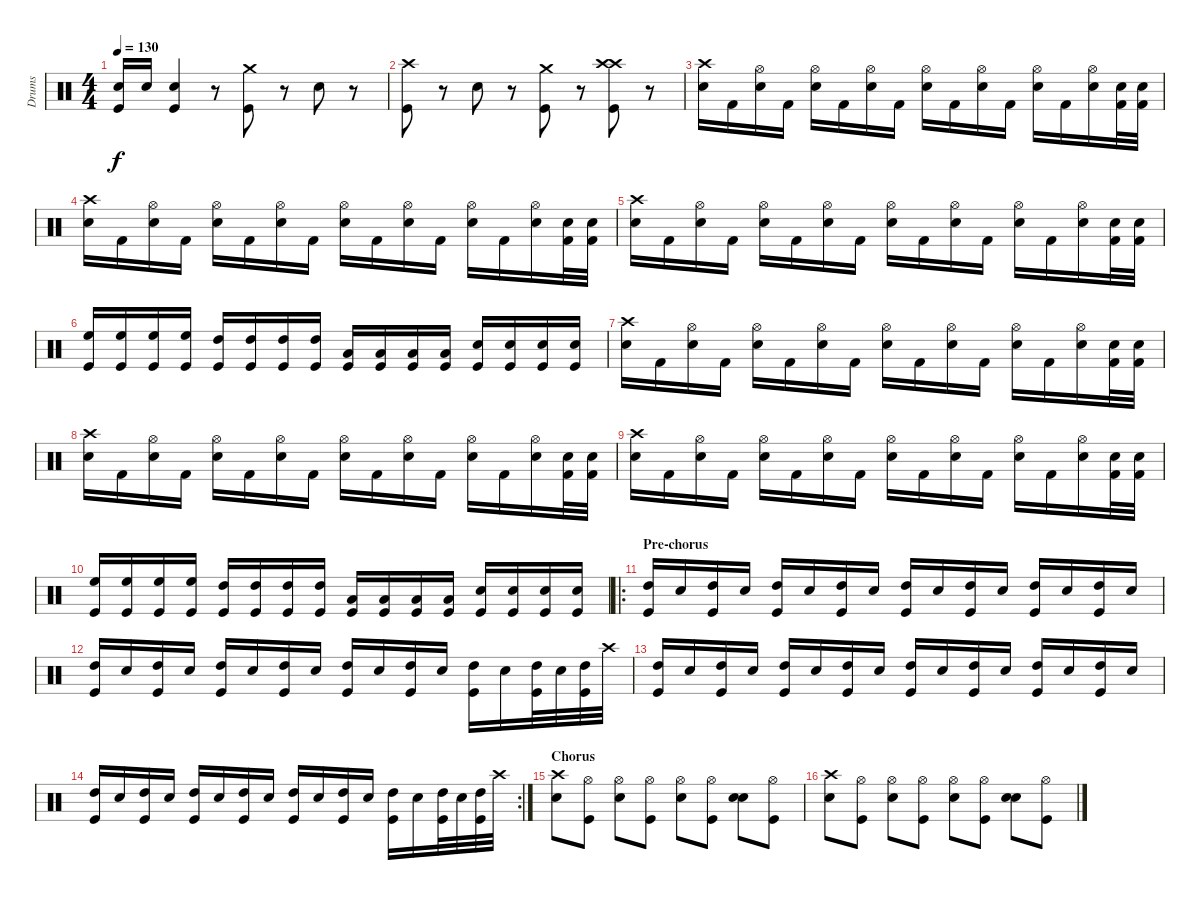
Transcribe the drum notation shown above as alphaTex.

\track ("Drums" "Drums") {instrument percussion}
\staff {score}
\articulation defaults
\ts (4 4)
\tempo 130
\clef neutral
\ks c
("Snare (hit) 2" "Kick (hit)").16{dy f} "Snare (hit) 2".16 ("Snare (hit) 2" "Kick (hit)").4 r.8 ("Crash medium (hit)" "Kick (hit)").8 r.8 "Electric Snare (hit)".8 r.8 |
("Crash high (hit)" "Kick (hit)").8 r.8 "Electric Snare (hit)".8 r.8 ("Crash medium (hit)" "Kick (hit)").8 r.8 ("Crash high (hit)" "Crash high (hit)" "Kick (hit)").8 r.8 |
("Crash high (hit)" "Snare (hit) 2").16 "Kick (hit) 2".16 ("Snare (hit) 2" "Hi-Hat (open)").16 "Kick (hit) 2".16 ("Snare (hit) 2" "Hi-Hat (open)").16 "Kick (hit) 2".16 ("Snare (hit) 2" "Hi-Hat (open)").16 "Kick (hit) 2".16 ("Hi-Hat (open)" "Snare (hit) 2").16 "Kick (hit) 2".16 ("Hi-Hat (open)" "Snare (hit) 2").16 "Kick (hit) 2".16 ("Hi-Hat (open)" "Snare (hit) 2").16 "Kick (hit) 2".16 ("Hi-Hat (open)" "Snare (hit) 2").16 ("Electric Snare (hit)" "Kick (hit) 2").32 ("Electric Snare (hit)" "Kick (hit) 2").32 |
("Crash high (hit)" "Snare (hit) 2").16 "Kick (hit) 2".16 ("Snare (hit) 2" "Hi-Hat (open)").16 "Kick (hit) 2".16 ("Snare (hit) 2" "Hi-Hat (open)").16 "Kick (hit) 2".16 ("Snare (hit) 2" "Hi-Hat (open)").16 "Kick (hit) 2".16 ("Hi-Hat (open)" "Snare (hit) 2").16 "Kick (hit) 2".16 ("Hi-Hat (open)" "Snare (hit) 2").16 "Kick (hit) 2".16 ("Hi-Hat (open)" "Snare (hit) 2").16 "Kick (hit) 2".16 ("Hi-Hat (open)" "Snare (hit) 2").16 ("Electric Snare (hit)" "Kick (hit) 2").32 ("Electric Snare (hit)" "Kick (hit) 2").32 |
("Crash high (hit)" "Snare (hit) 2").16 "Kick (hit) 2".16 ("Snare (hit) 2" "Hi-Hat (open)").16 "Kick (hit) 2".16 ("Snare (hit) 2" "Hi-Hat (open)").16 "Kick (hit) 2".16 ("Snare (hit) 2" "Hi-Hat (open)").16 "Kick (hit) 2".16 ("Hi-Hat (open)" "Snare (hit) 2").16 "Kick (hit) 2".16 ("Hi-Hat (open)" "Snare (hit) 2").16 "Kick (hit) 2".16 ("Hi-Hat (open)" "Snare (hit) 2").16 "Kick (hit) 2".16 ("Hi-Hat (open)" "Snare (hit) 2").16 ("Electric Snare (hit)" "Kick (hit) 2").32 ("Electric Snare (hit)" "Kick (hit) 2").32 |
("High Floor Tom (hit)" "Kick (hit)").16 ("High Floor Tom (hit)" "Kick (hit)").16 ("High Floor Tom (hit)" "Kick (hit)").16 ("High Floor Tom (hit)" "Kick (hit)").16 ("High Tom (hit)" "Kick (hit)").16 ("High Tom (hit)" "Kick (hit)").16 ("High Tom (hit)" "Kick (hit)").16 ("High Tom (hit)" "Kick (hit)").16 ("Low Tom (hit)" "Kick (hit)").16 ("Low Tom (hit)" "Kick (hit)").16 ("Low Tom (hit)" "Kick (hit)").16 ("Low Tom (hit)" "Kick (hit)").16 ("Snare (hit) 2" "Kick (hit)").16 ("Snare (hit) 2" "Kick (hit)").16 ("Snare (hit) 2" "Kick (hit)").16 ("Snare (hit) 2" "Kick (hit)").16 |
("Crash high (hit)" "Snare (hit) 2").16 "Kick (hit) 2".16 ("Snare (hit) 2" "Hi-Hat (open)").16 "Kick (hit) 2".16 ("Snare (hit) 2" "Hi-Hat (open)").16 "Kick (hit) 2".16 ("Snare (hit) 2" "Hi-Hat (open)").16 "Kick (hit) 2".16 ("Hi-Hat (open)" "Snare (hit) 2").16 "Kick (hit) 2".16 ("Hi-Hat (open)" "Snare (hit) 2").16 "Kick (hit) 2".16 ("Hi-Hat (open)" "Snare (hit) 2").16 "Kick (hit) 2".16 ("Hi-Hat (open)" "Snare (hit) 2").16 ("Electric Snare (hit)" "Kick (hit) 2").32 ("Electric Snare (hit)" "Kick (hit) 2").32 |
("Crash high (hit)" "Snare (hit) 2").16 "Kick (hit) 2".16 ("Snare (hit) 2" "Hi-Hat (open)").16 "Kick (hit) 2".16 ("Snare (hit) 2" "Hi-Hat (open)").16 "Kick (hit) 2".16 ("Snare (hit) 2" "Hi-Hat (open)").16 "Kick (hit) 2".16 ("Hi-Hat (open)" "Snare (hit) 2").16 "Kick (hit) 2".16 ("Hi-Hat (open)" "Snare (hit) 2").16 "Kick (hit) 2".16 ("Hi-Hat (open)" "Snare (hit) 2").16 "Kick (hit) 2".16 ("Hi-Hat (open)" "Snare (hit) 2").16 ("Electric Snare (hit)" "Kick (hit) 2").32 ("Electric Snare (hit)" "Kick (hit) 2").32 |
("Crash high (hit)" "Snare (hit) 2").16 "Kick (hit) 2".16 ("Snare (hit) 2" "Hi-Hat (open)").16 "Kick (hit) 2".16 ("Snare (hit) 2" "Hi-Hat (open)").16 "Kick (hit) 2".16 ("Snare (hit) 2" "Hi-Hat (open)").16 "Kick (hit) 2".16 ("Hi-Hat (open)" "Snare (hit) 2").16 "Kick (hit) 2".16 ("Hi-Hat (open)" "Snare (hit) 2").16 "Kick (hit) 2".16 ("Hi-Hat (open)" "Snare (hit) 2").16 "Kick (hit) 2".16 ("Hi-Hat (open)" "Snare (hit) 2").16 ("Electric Snare (hit)" "Kick (hit) 2").32 ("Electric Snare (hit)" "Kick (hit) 2").32 |
("High Floor Tom (hit)" "Kick (hit)").16 ("High Floor Tom (hit)" "Kick (hit)").16 ("High Floor Tom (hit)" "Kick (hit)").16 ("High Floor Tom (hit)" "Kick (hit)").16 ("High Tom (hit)" "Kick (hit)").16 ("High Tom (hit)" "Kick (hit)").16 ("High Tom (hit)" "Kick (hit)").16 ("High Tom (hit)" "Kick (hit)").16 ("Low Tom (hit)" "Kick (hit)").16 ("Low Tom (hit)" "Kick (hit)").16 ("Low Tom (hit)" "Kick (hit)").16 ("Low Tom (hit)" "Kick (hit)").16 ("Snare (hit) 2" "Kick (hit)").16 ("Snare (hit) 2" "Kick (hit)").16 ("Snare (hit) 2" "Kick (hit)").16 ("Snare (hit) 2" "Kick (hit)").16 |
\ro
\section ("" "Pre-chorus")
("High Tom (hit)" "Kick (hit)").16 "Electric Snare (hit)".16 ("High Tom (hit)" "Kick (hit)").16 "Electric Snare (hit)".16 ("High Tom (hit)" "Kick (hit)").16 "Electric Snare (hit)".16 ("High Tom (hit)" "Kick (hit)").16 "Electric Snare (hit)".16 ("High Tom (hit)" "Kick (hit)").16 "Electric Snare (hit)".16 ("High Tom (hit)" "Kick (hit)").16 "Electric Snare (hit)".16 ("High Tom (hit)" "Kick (hit)").16 "Electric Snare (hit)".16 ("High Tom (hit)" "Kick (hit)").16 "Electric Snare (hit)".16 |
("High Tom (hit)" "Kick (hit)").16 "Electric Snare (hit)".16 ("High Tom (hit)" "Kick (hit)").16 "Electric Snare (hit)".16 ("High Tom (hit)" "Kick (hit)").16 "Electric Snare (hit)".16 ("High Tom (hit)" "Kick (hit)").16 "Electric Snare (hit)".16 ("High Tom (hit)" "Kick (hit)").16 "Electric Snare (hit)".16 ("High Tom (hit)" "Kick (hit)").16 "Electric Snare (hit)".16 ("High Tom (hit)" "Kick (hit)").16 "Electric Snare (hit)".16 ("High Tom (hit)" "Kick (hit)").32 "Electric Snare (hit)".32 ("High Tom (hit)" "Kick (hit)").32 "Crash high (hit)".32 |
("High Tom (hit)" "Kick (hit)").16 "Electric Snare (hit)".16 ("High Tom (hit)" "Kick (hit)").16 "Electric Snare (hit)".16 ("High Tom (hit)" "Kick (hit)").16 "Electric Snare (hit)".16 ("High Tom (hit)" "Kick (hit)").16 "Electric Snare (hit)".16 ("High Tom (hit)" "Kick (hit)").16 "Electric Snare (hit)".16 ("High Tom (hit)" "Kick (hit)").16 "Electric Snare (hit)".16 ("High Tom (hit)" "Kick (hit)").16 "Electric Snare (hit)".16 ("High Tom (hit)" "Kick (hit)").16 "Electric Snare (hit)".16 |
\rc 2
("High Tom (hit)" "Kick (hit)").16 "Electric Snare (hit)".16 ("High Tom (hit)" "Kick (hit)").16 "Electric Snare (hit)".16 ("High Tom (hit)" "Kick (hit)").16 "Electric Snare (hit)".16 ("High Tom (hit)" "Kick (hit)").16 "Electric Snare (hit)".16 ("High Tom (hit)" "Kick (hit)").16 "Electric Snare (hit)".16 ("High Tom (hit)" "Kick (hit)").16 "Electric Snare (hit)".16 ("High Tom (hit)" "Kick (hit)").16 "Electric Snare (hit)".16 ("High Tom (hit)" "Kick (hit)").32 "Electric Snare (hit)".32 ("High Tom (hit)" "Kick (hit)").32 "Crash high (hit)".32 |
\section ("" "Chorus")
("Crash high (hit)" "Electric Snare (hit)").8 ("Hi-Hat (open)" "Kick (hit)").8 ("Electric Snare (hit)" "Hi-Hat (open)").8 ("Hi-Hat (open)" "Kick (hit)").8 ("Hi-Hat (open)" "Electric Snare (hit)").8 ("Hi-Hat (open)" "Kick (hit)").8 ("Electric Snare (hit)" "Electric Snare (hit)").8 ("Hi-Hat (open)" "Kick (hit)").8 |
("Crash high (hit)" "Electric Snare (hit)").8 ("Hi-Hat (open)" "Kick (hit)").8 ("Electric Snare (hit)" "Hi-Hat (open)").8 ("Hi-Hat (open)" "Kick (hit)").8 ("Hi-Hat (open)" "Electric Snare (hit)").8 ("Hi-Hat (open)" "Kick (hit)").8 ("Electric Snare (hit)" "Electric Snare (hit)").8 ("Hi-Hat (open)" "Kick (hit)").8
